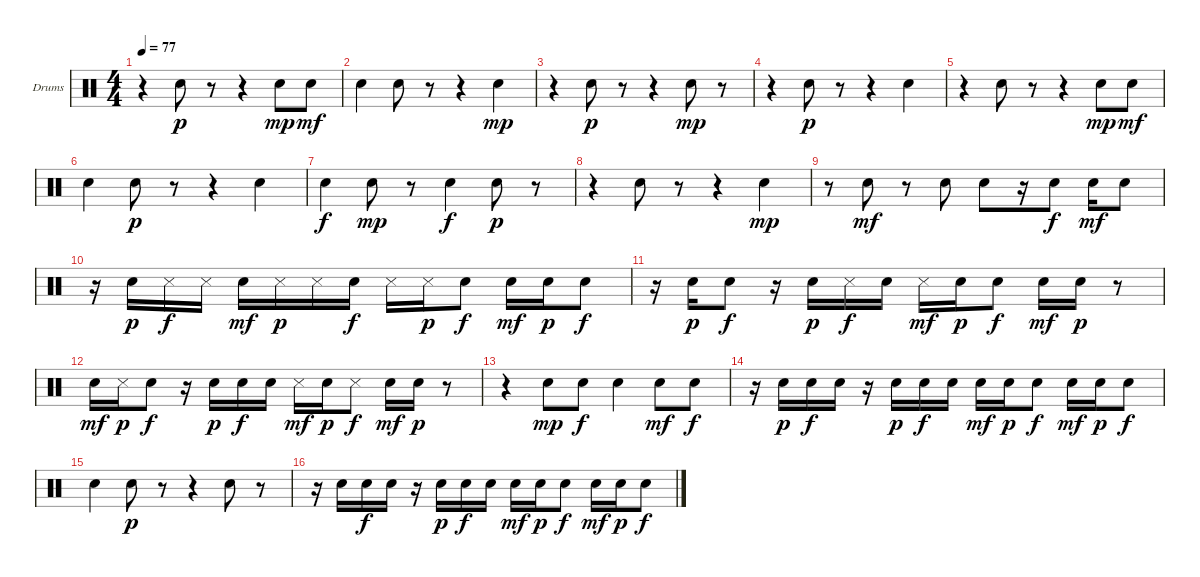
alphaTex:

\bracketExtendMode groupsimilarinstruments
\firstSystemTrackNameOrientation horizontal
\otherSystemsTrackNameOrientation horizontal
\track ("Drumkit Гурьянов" "Drums") {instrument percussion}
\staff {score}
\articulation defaults
\ts (4 4)
\tempo 77
\clef neutral
\scale
0.333333
\ks c
r.4{dy p} "Snare (hit) 2".8 r.8 r.4 "Snare (hit) 2".8{dy mp} "Snare (hit) 2".8{dy mf} |
\scale
0.333333 "Snare (hit) 2".4 "Snare (hit) 2".8 r.8 r.4 "Snare (hit) 2".4{dy mp} |
\scale
0.333333 r.4 "Snare (hit) 2".8{dy p} r.8 r.4 "Snare (hit) 2".8{dy mp} r.8 |
\scale
0.333333 r.4 "Snare (hit) 2".8{dy p} r.8 r.4 "Snare (hit) 2".4 |
\scale
0.333333 r.4 "Snare (hit) 2".8 r.8 r.4 "Snare (hit) 2".8{dy mp} "Snare (hit) 2".8{dy mf} |
\scale
0.333333 "Snare (hit) 2".4 "Snare (hit) 2".8{dy p} r.8 r.4 "Snare (hit) 2".4 |
\scale
0.333333 "Snare (hit) 2".4{dy f} "Snare (hit) 2".8{dy mp} r.8 "Snare (hit) 2".4{dy f} "Snare (hit) 2".8{dy p} r.8 |
\scale
0.333333 r.4 "Snare (hit) 2".8 r.8 r.4 "Snare (hit) 2".4{dy mp} |
\scale
0.333333 r.8 "Snare (hit) 2".8{dy mf} r.8 "Snare (hit) 2".8 "Snare (hit) 2".8 r.16 "Snare (hit) 2".8{dy f} "Snare (hit) 2".16{dy mf} "Snare (hit) 2".8 |
\scale
0.333333 r.16 "Snare (hit) 2".16{dy p} "Snare (side stick) 3".16{dy f} "Snare (side stick) 3".16 "Snare (hit) 2".16{dy mf} "Snare (side stick) 3".16{dy p} "Snare (side stick) 3".16 "Snare (hit) 2".16{dy f} "Snare (side stick) 3".16 "Snare (side stick) 3".16{dy p} "Snare (hit) 2".8{dy f} "Snare (hit) 2".16{dy mf} "Snare (hit) 2".16{dy p} "Snare (hit) 2".8{dy f} |
\scale
0.333333 r.16 "Snare (hit) 2".16{dy p} "Snare (hit) 2".8{dy f} r.16 "Snare (hit) 2".16{dy p} "Snare (side stick) 3".16{dy f} "Snare (hit) 2".16 "Snare (side stick) 3".16{dy mf} "Snare (hit) 2".16{dy p} "Snare (hit) 2".8{dy f} "Snare (hit) 2".16{dy mf} "Snare (hit) 2".16{dy p} r.8 |
\scale
0.333333 "Snare (hit) 2".16{dy mf} "Snare (side stick) 3".16{dy p} "Snare (hit) 2".8{dy f} r.16 "Snare (hit) 2".16{dy p} "Snare (hit) 2".16{dy f} "Snare (hit) 2".16 "Snare (side stick) 3".16{dy mf} "Snare (hit) 2".16{dy p} "Snare (side stick) 3".8{dy f} "Snare (hit) 2".16{dy mf} "Snare (hit) 2".16{dy p} r.8 |
\scale
0.333333 r.4 "Snare (hit) 2".8{dy mp} "Snare (hit) 2".8{dy f} "Snare (hit) 2".4 "Snare (hit) 2".8{dy mf} "Snare (hit) 2".8{dy f} |
\scale
0.333333 r.16 "Snare (hit) 2".16{dy p} "Snare (hit) 2".16{dy f} "Snare (hit) 2".16 r.16 "Snare (hit) 2".16{dy p} "Snare (hit) 2".16{dy f} "Snare (hit) 2".16 "Snare (hit) 2".16{dy mf} "Snare (hit) 2".16{dy p} "Snare (hit) 2".8{dy f} "Snare (hit) 2".16{dy mf} "Snare (hit) 2".16{dy p} "Snare (hit) 2".8{dy f} |
\scale
0.333333 "Snare (hit) 2".4 "Snare (hit) 2".8{dy p} r.8 r.4 "Snare (hit) 2".8 r.8 |
\scale
0.333333 r.16 "Snare (hit) 2".16 "Snare (hit) 2".16{dy f} "Snare (hit) 2".16 r.16 "Snare (hit) 2".16{dy p} "Snare (hit) 2".16{dy f} "Snare (hit) 2".16 "Snare (hit) 2".16{dy mf} "Snare (hit) 2".16{dy p} "Snare (hit) 2".8{dy f} "Snare (hit) 2".16{dy mf} "Snare (hit) 2".16{dy p} "Snare (hit) 2".8{dy f}
